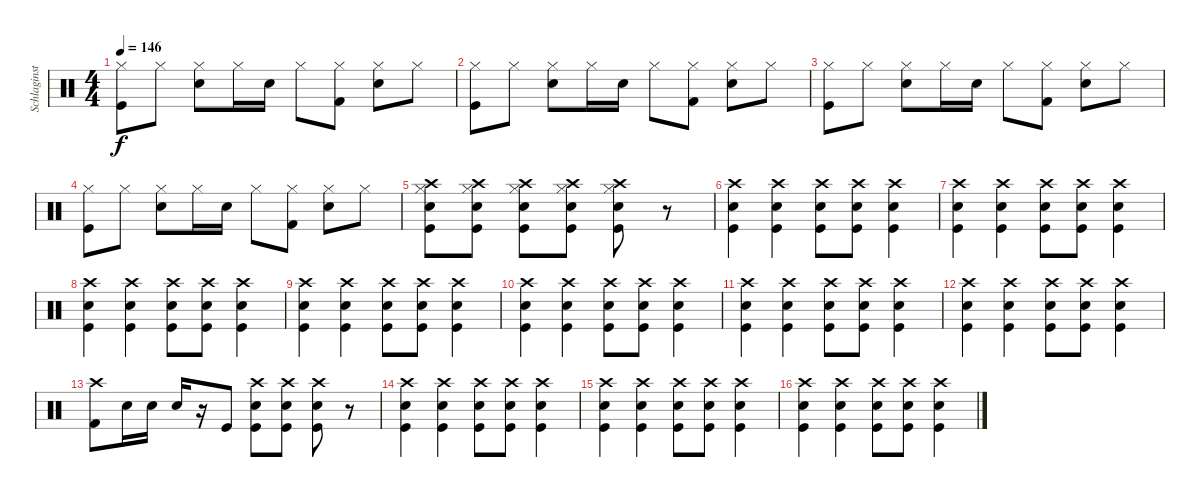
\track ("Schlaginstrumente - Auswahl" "Schlaginst") {instrument percussion}
\staff {score}
\articulation defaults
\ts (4 4)
\tempo 146
\clef neutral
\ks c
("Hi-Hat (closed)" "Kick (hit)").8{dy f} "Hi-Hat (closed)".8 ("Hi-Hat (closed)" "Snare (hit) 2").8 "Hi-Hat (closed)".16 "Snare (hit) 2".16 "Hi-Hat (closed)".8 ("Hi-Hat (closed)" "Kick (hit) 2").8 ("Hi-Hat (closed)" "Snare (hit) 2").8 "Hi-Hat (closed)".8 |
("Hi-Hat (closed)" "Kick (hit)").8 "Hi-Hat (closed)".8 ("Hi-Hat (closed)" "Snare (hit) 2").8 "Hi-Hat (closed)".16 "Snare (hit) 2".16 "Hi-Hat (closed)".8 ("Hi-Hat (closed)" "Kick (hit) 2").8 ("Hi-Hat (closed)" "Snare (hit) 2").8 "Hi-Hat (closed)".8 |
("Hi-Hat (closed)" "Kick (hit)").8 "Hi-Hat (closed)".8 ("Hi-Hat (closed)" "Snare (hit) 2").8 "Hi-Hat (closed)".16 "Snare (hit) 2".16 "Hi-Hat (closed)".8 ("Hi-Hat (closed)" "Kick (hit) 2").8 ("Hi-Hat (closed)" "Snare (hit) 2").8 "Hi-Hat (closed)".8 |
("Hi-Hat (closed)" "Kick (hit)").8 "Hi-Hat (closed)".8 ("Hi-Hat (closed)" "Snare (hit) 2").8 "Hi-Hat (closed)".16 "Snare (hit) 2".16 "Hi-Hat (closed)".8 ("Hi-Hat (closed)" "Kick (hit) 2").8 ("Hi-Hat (closed)" "Snare (hit) 2").8 "Hi-Hat (closed)".8 |
("Crash high (hit)" "Hi-Hat (closed)" "Snare (hit) 2" "Kick (hit)").8 ("Crash high (hit)" "Hi-Hat (closed)" "Snare (hit) 2" "Kick (hit)").8 ("Crash high (hit)" "Hi-Hat (closed)" "Snare (hit) 2" "Kick (hit)").8 ("Crash high (hit)" "Hi-Hat (closed)" "Snare (hit) 2" "Kick (hit)").8 ("Crash high (hit)" "Hi-Hat (closed)" "Snare (hit) 2" "Kick (hit)").8 r.8 |
("Snare (hit) 2" "Crash high (hit)" "Kick (hit)").4 ("Snare (hit) 2" "Crash high (hit)" "Kick (hit)").4 ("Snare (hit) 2" "Crash high (hit)" "Kick (hit)").8 ("Snare (hit) 2" "Crash high (hit)" "Kick (hit)").8 ("Snare (hit) 2" "Crash high (hit)" "Kick (hit)").4 |
("Snare (hit) 2" "Crash high (hit)" "Kick (hit)").4 ("Snare (hit) 2" "Crash high (hit)" "Kick (hit)").4 ("Snare (hit) 2" "Crash high (hit)" "Kick (hit)").8 ("Snare (hit) 2" "Crash high (hit)" "Kick (hit)").8 ("Snare (hit) 2" "Crash high (hit)" "Kick (hit)").4 |
("Snare (hit) 2" "Crash high (hit)" "Kick (hit)").4 ("Snare (hit) 2" "Crash high (hit)" "Kick (hit)").4 ("Snare (hit) 2" "Crash high (hit)" "Kick (hit)").8 ("Snare (hit) 2" "Crash high (hit)" "Kick (hit)").8 ("Snare (hit) 2" "Crash high (hit)" "Kick (hit)").4 |
("Snare (hit) 2" "Crash high (hit)" "Kick (hit)").4 ("Snare (hit) 2" "Crash high (hit)" "Kick (hit)").4 ("Snare (hit) 2" "Crash high (hit)" "Kick (hit)").8 ("Snare (hit) 2" "Crash high (hit)" "Kick (hit)").8 ("Snare (hit) 2" "Crash high (hit)" "Kick (hit)").4 |
("Snare (hit) 2" "Crash high (hit)" "Kick (hit)").4 ("Snare (hit) 2" "Crash high (hit)" "Kick (hit)").4 ("Snare (hit) 2" "Crash high (hit)" "Kick (hit)").8 ("Snare (hit) 2" "Crash high (hit)" "Kick (hit)").8 ("Snare (hit) 2" "Crash high (hit)" "Kick (hit)").4 |
("Snare (hit) 2" "Crash high (hit)" "Kick (hit)").4 ("Snare (hit) 2" "Crash high (hit)" "Kick (hit)").4 ("Snare (hit) 2" "Crash high (hit)" "Kick (hit)").8 ("Snare (hit) 2" "Crash high (hit)" "Kick (hit)").8 ("Snare (hit) 2" "Crash high (hit)" "Kick (hit)").4 |
("Snare (hit) 2" "Crash high (hit)" "Kick (hit)").4 ("Snare (hit) 2" "Crash high (hit)" "Kick (hit)").4 ("Snare (hit) 2" "Crash high (hit)" "Kick (hit)").8 ("Snare (hit) 2" "Crash high (hit)" "Kick (hit)").8 ("Snare (hit) 2" "Crash high (hit)" "Kick (hit)").4 |
("Kick (hit) 2" "Crash high (hit)").8 "Snare (hit) 2".16 "Snare (hit) 2".16 "Snare (hit) 2".16 r.16 "Kick (hit)".8 ("Crash high (hit)" "Snare (hit) 2" "Kick (hit)").8 ("Crash high (hit)" "Snare (hit) 2" "Kick (hit)").8 ("Crash high (hit)" "Snare (hit) 2" "Kick (hit)").8 r.8 |
("Snare (hit) 2" "Crash high (hit)" "Kick (hit)").4 ("Snare (hit) 2" "Crash high (hit)" "Kick (hit)").4 ("Snare (hit) 2" "Crash high (hit)" "Kick (hit)").8 ("Snare (hit) 2" "Crash high (hit)" "Kick (hit)").8 ("Snare (hit) 2" "Crash high (hit)" "Kick (hit)").4 |
("Snare (hit) 2" "Crash high (hit)" "Kick (hit)").4 ("Snare (hit) 2" "Crash high (hit)" "Kick (hit)").4 ("Snare (hit) 2" "Crash high (hit)" "Kick (hit)").8 ("Snare (hit) 2" "Crash high (hit)" "Kick (hit)").8 ("Snare (hit) 2" "Crash high (hit)" "Kick (hit)").4 |
("Snare (hit) 2" "Crash high (hit)" "Kick (hit)").4 ("Snare (hit) 2" "Crash high (hit)" "Kick (hit)").4 ("Snare (hit) 2" "Crash high (hit)" "Kick (hit)").8 ("Snare (hit) 2" "Crash high (hit)" "Kick (hit)").8 ("Snare (hit) 2" "Crash high (hit)" "Kick (hit)").4
